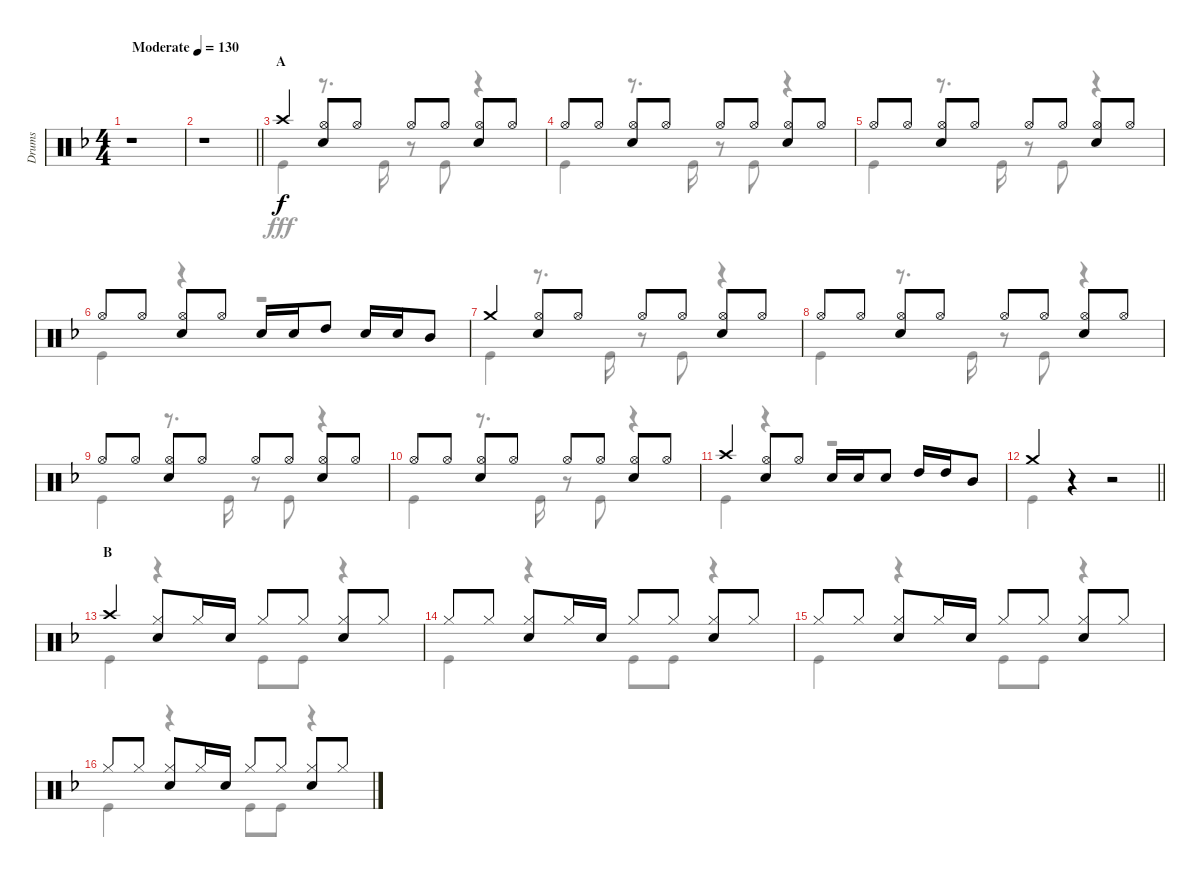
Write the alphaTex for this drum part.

\track ("Drums" "Drums") {instrument percussion}
\staff {score}
\articulation defaults
\voice
\ts (4 4)
\tempo (130 "Moderate")
\clef neutral
\ks f
r.1{dy f} |
\barLineRight lightlight
r.1 |
\section ("" "A")
"Crash high (hit)".4 ("Hi-Hat (open)" "Snare (hit) 2").8 "Hi-Hat (open)".8 "Hi-Hat (open)".8 "Hi-Hat (open)".8 ("Hi-Hat (open)" "Snare (hit) 2").8 "Hi-Hat (open)".8 |
"Hi-Hat (open)".8 "Hi-Hat (open)".8 ("Hi-Hat (open)" "Snare (hit) 2").8 "Hi-Hat (open)".8 "Hi-Hat (open)".8 "Hi-Hat (open)".8 ("Hi-Hat (open)" "Snare (hit) 2").8 "Hi-Hat (open)".8 |
"Hi-Hat (open)".8 "Hi-Hat (open)".8 ("Hi-Hat (open)" "Snare (hit) 2").8 "Hi-Hat (open)".8 "Hi-Hat (open)".8 "Hi-Hat (open)".8 ("Hi-Hat (open)" "Snare (hit) 2").8 "Hi-Hat (open)".8 |
"Hi-Hat (open)".8 "Hi-Hat (open)".8 ("Hi-Hat (open)" "Snare (hit) 2").8 "Hi-Hat (open)".8 "Snare (hit) 2".16 "Snare (hit) 2".16 "High Tom (hit)".8 "Snare (hit) 2".16 "Snare (hit) 2".16 "Mid Tom (hit)".8 |
"Crash medium (hit)".4 ("Hi-Hat (open)" "Snare (hit) 2").8 "Hi-Hat (open)".8 "Hi-Hat (open)".8 "Hi-Hat (open)".8 ("Hi-Hat (open)" "Snare (hit) 2").8 "Hi-Hat (open)".8 |
"Hi-Hat (open)".8 "Hi-Hat (open)".8 ("Hi-Hat (open)" "Snare (hit) 2").8 "Hi-Hat (open)".8 "Hi-Hat (open)".8 "Hi-Hat (open)".8 ("Hi-Hat (open)" "Snare (hit) 2").8 "Hi-Hat (open)".8 |
"Hi-Hat (open)".8 "Hi-Hat (open)".8 ("Hi-Hat (open)" "Snare (hit) 2").8 "Hi-Hat (open)".8 "Hi-Hat (open)".8 "Hi-Hat (open)".8 ("Hi-Hat (open)" "Snare (hit) 2").8 "Hi-Hat (open)".8 |
"Hi-Hat (open)".8 "Hi-Hat (open)".8 ("Hi-Hat (open)" "Snare (hit) 2").8 "Hi-Hat (open)".8 "Hi-Hat (open)".8 "Hi-Hat (open)".8 ("Hi-Hat (open)" "Snare (hit) 2").8 "Hi-Hat (open)".8 |
"Crash high (hit)".4 ("Hi-Hat (open)" "Snare (hit) 2").8 "Hi-Hat (open)".8 "Snare (hit) 2".16 "Snare (hit) 2".16 "Snare (hit) 2".8 "High Tom (hit)".16 "High Tom (hit)".16 "Mid Tom (hit)".8 |
\barLineRight lightlight "Crash medium (hit)".4
r.4 r.2 |
\section ("" "B")
"Crash high (hit)".4 ("Hi-Hat (closed)" "Snare (hit) 2").8 "Hi-Hat (closed)".16 "Snare (hit) 2".16 "Hi-Hat (closed)".8 "Hi-Hat (closed)".8 ("Hi-Hat (closed)" "Snare (hit) 2").8 "Hi-Hat (closed)".8 |
"Hi-Hat (closed)".8 "Hi-Hat (closed)".8 ("Hi-Hat (closed)" "Snare (hit) 2").8 "Hi-Hat (closed)".16 "Snare (hit) 2".16 "Hi-Hat (closed)".8 "Hi-Hat (closed)".8 ("Hi-Hat (closed)" "Snare (hit) 2").8 "Hi-Hat (closed)".8 |
"Hi-Hat (closed)".8 "Hi-Hat (closed)".8 ("Hi-Hat (closed)" "Snare (hit) 2").8 "Hi-Hat (closed)".16 "Snare (hit) 2".16 "Hi-Hat (closed)".8 "Hi-Hat (closed)".8 ("Hi-Hat (closed)" "Snare (hit) 2").8 "Hi-Hat (closed)".8 |
"Hi-Hat (closed)".8 "Hi-Hat (closed)".8 ("Hi-Hat (closed)" "Snare (hit) 2").8 "Hi-Hat (closed)".16 "Snare (hit) 2".16 "Hi-Hat (closed)".8 "Hi-Hat (closed)".8 ("Hi-Hat (closed)" "Snare (hit) 2").8 "Hi-Hat (closed)".8
\voice
\clef neutral
\ottava regular
\simile none
\ks f
r.1{dy fff} |
\barLineRight lightlight
r.1 |
"Kick (hit)".4 r.8{d} "Kick (hit)".16 r.8 "Kick (hit)".8 r.4 |
"Kick (hit)".4 r.8{d} "Kick (hit)".16 r.8 "Kick (hit)".8 r.4 |
"Kick (hit)".4 r.8{d} "Kick (hit)".16 r.8 "Kick (hit)".8 r.4 |
"Kick (hit)".4 r.4 r.2 |
"Kick (hit)".4 r.8{d} "Kick (hit)".16 r.8 "Kick (hit)".8 r.4 |
"Kick (hit)".4 r.8{d} "Kick (hit)".16 r.8 "Kick (hit)".8 r.4 |
"Kick (hit)".4 r.8{d} "Kick (hit)".16 r.8 "Kick (hit)".8 r.4 |
"Kick (hit)".4 r.8{d} "Kick (hit)".16 r.8 "Kick (hit)".8 r.4 |
"Kick (hit)".4 r.4 r.2 |
\barLineRight lightlight "Kick (hit)".4
r.4 r.2 |
"Kick (hit)".4 r.4 "Kick (hit)".8 "Kick (hit)".8 r.4 |
"Kick (hit)".4 r.4 "Kick (hit)".8 "Kick (hit)".8 r.4 |
"Kick (hit)".4 r.4 "Kick (hit)".8 "Kick (hit)".8 r.4 |
"Kick (hit)".4 r.4 "Kick (hit)".8 "Kick (hit)".8 r.4
